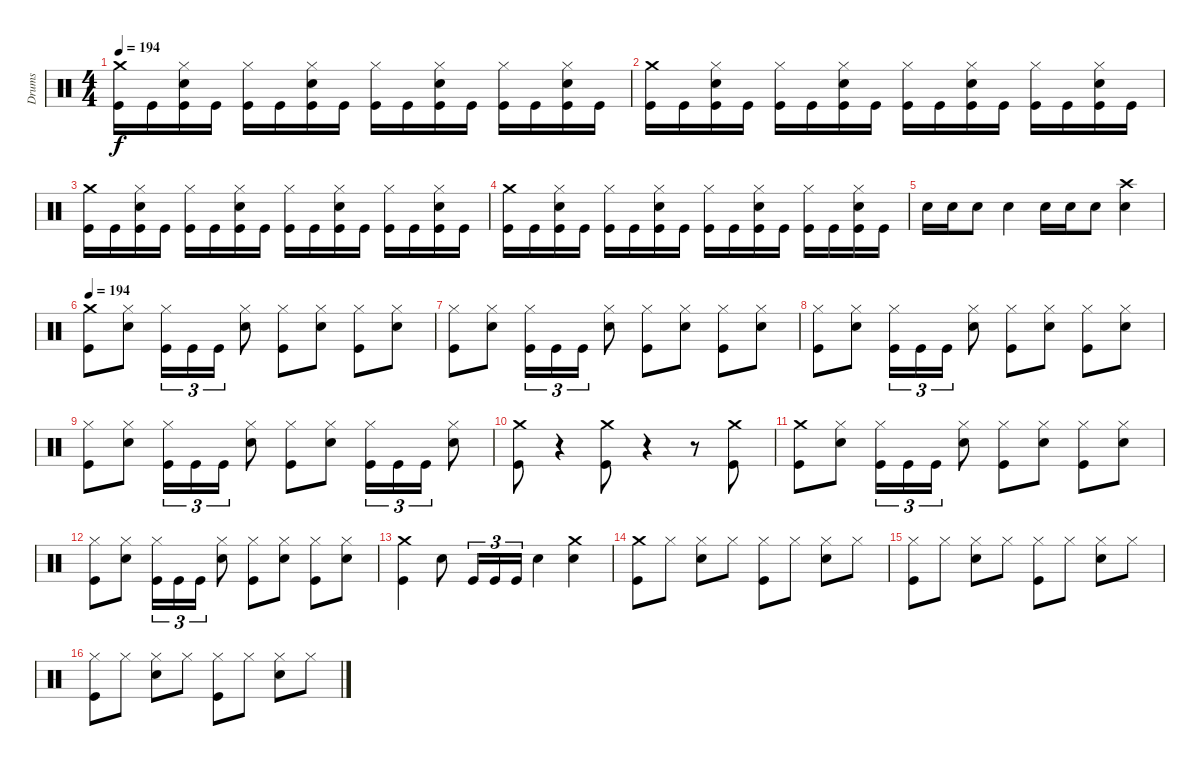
\track ("Drums" "Drums") {instrument percussion}
\staff {score}
\articulation defaults
\ts (4 4)
\tempo 194
\clef neutral
\ks c
("Crash medium (hit)" "Kick (hit)").16{dy f} "Kick (hit)".16 ("Hi-Hat (closed)" "Snare (hit) 2" "Kick (hit)").16 "Kick (hit)".16 ("Hi-Hat (closed)" "Kick (hit)").16 "Kick (hit)".16 ("Hi-Hat (closed)" "Snare (hit) 2" "Kick (hit)").16 "Kick (hit)".16 ("Hi-Hat (closed)" "Kick (hit)").16 "Kick (hit)".16 ("Hi-Hat (closed)" "Snare (hit) 2" "Kick (hit)").16 "Kick (hit)".16 ("Hi-Hat (closed)" "Kick (hit)").16 "Kick (hit)".16 ("Hi-Hat (closed)" "Snare (hit) 2" "Kick (hit)").16 "Kick (hit)".16 |
("Crash medium (hit)" "Kick (hit)").16 "Kick (hit)".16 ("Hi-Hat (closed)" "Snare (hit) 2" "Kick (hit)").16 "Kick (hit)".16 ("Hi-Hat (closed)" "Kick (hit)").16 "Kick (hit)".16 ("Hi-Hat (closed)" "Snare (hit) 2" "Kick (hit)").16 "Kick (hit)".16 ("Hi-Hat (closed)" "Kick (hit)").16 "Kick (hit)".16 ("Hi-Hat (closed)" "Snare (hit) 2" "Kick (hit)").16 "Kick (hit)".16 ("Hi-Hat (closed)" "Kick (hit)").16 "Kick (hit)".16 ("Hi-Hat (closed)" "Snare (hit) 2" "Kick (hit)").16 "Kick (hit)".16 |
("Crash medium (hit)" "Kick (hit)").16 "Kick (hit)".16 ("Hi-Hat (closed)" "Snare (hit) 2" "Kick (hit)").16 "Kick (hit)".16 ("Hi-Hat (closed)" "Kick (hit)").16 "Kick (hit)".16 ("Hi-Hat (closed)" "Snare (hit) 2" "Kick (hit)").16 "Kick (hit)".16 ("Hi-Hat (closed)" "Kick (hit)").16 "Kick (hit)".16 ("Hi-Hat (closed)" "Snare (hit) 2" "Kick (hit)").16 "Kick (hit)".16 ("Hi-Hat (closed)" "Kick (hit)").16 "Kick (hit)".16 ("Hi-Hat (closed)" "Snare (hit) 2" "Kick (hit)").16 "Kick (hit)".16 |
("Crash medium (hit)" "Kick (hit)").16 "Kick (hit)".16 ("Hi-Hat (closed)" "Snare (hit) 2" "Kick (hit)").16 "Kick (hit)".16 ("Hi-Hat (closed)" "Kick (hit)").16 "Kick (hit)".16 ("Hi-Hat (closed)" "Snare (hit) 2" "Kick (hit)").16 "Kick (hit)".16 ("Hi-Hat (closed)" "Kick (hit)").16 "Kick (hit)".16 ("Hi-Hat (closed)" "Snare (hit) 2" "Kick (hit)").16 "Kick (hit)".16 ("Hi-Hat (closed)" "Kick (hit)").16 "Kick (hit)".16 ("Hi-Hat (closed)" "Snare (hit) 2" "Kick (hit)").16 "Kick (hit)".16 |
"Snare (hit) 2".16 "Snare (hit) 2".16 "Snare (hit) 2".8 "Snare (hit) 2".4 "Snare (hit) 2".16 "Snare (hit) 2".16 "Snare (hit) 2".8 ("Crash high (hit)" "Snare (hit) 2").4 |
\tempo 194
("Crash medium (hit)" "Kick (hit)").8 ("Hi-Hat (closed)" "Snare (hit) 2").8 ("Hi-Hat (closed)" "Kick (hit)").16{tu (3 2)} "Kick (hit)".16{tu (3 2)} "Kick (hit)".16{tu (3 2)} ("Hi-Hat (closed)" "Snare (hit) 2").8 ("Hi-Hat (closed)" "Kick (hit)").8 ("Hi-Hat (closed)" "Snare (hit) 2").8 ("Hi-Hat (closed)" "Kick (hit)").8 ("Hi-Hat (closed)" "Snare (hit) 2").8 |
("Hi-Hat (closed)" "Kick (hit)").8 ("Hi-Hat (closed)" "Snare (hit) 2").8 ("Hi-Hat (closed)" "Kick (hit)").16{tu (3 2)} "Kick (hit)".16{tu (3 2)} "Kick (hit)".16{tu (3 2)} ("Hi-Hat (closed)" "Snare (hit) 2").8 ("Hi-Hat (closed)" "Kick (hit)").8 ("Hi-Hat (closed)" "Snare (hit) 2").8 ("Hi-Hat (closed)" "Kick (hit)").8 ("Hi-Hat (closed)" "Snare (hit) 2").8 |
("Hi-Hat (closed)" "Kick (hit)").8 ("Hi-Hat (closed)" "Snare (hit) 2").8 ("Hi-Hat (closed)" "Kick (hit)").16{tu (3 2)} "Kick (hit)".16{tu (3 2)} "Kick (hit)".16{tu (3 2)} ("Hi-Hat (closed)" "Snare (hit) 2").8 ("Hi-Hat (closed)" "Kick (hit)").8 ("Hi-Hat (closed)" "Snare (hit) 2").8 ("Hi-Hat (closed)" "Kick (hit)").8 ("Hi-Hat (closed)" "Snare (hit) 2").8 |
("Hi-Hat (closed)" "Kick (hit)").8 ("Hi-Hat (closed)" "Snare (hit) 2").8 ("Hi-Hat (closed)" "Kick (hit)").16{tu (3 2)} "Kick (hit)".16{tu (3 2)} "Kick (hit)".16{tu (3 2)} ("Hi-Hat (closed)" "Snare (hit) 2").8 ("Hi-Hat (closed)" "Kick (hit)").8 ("Hi-Hat (closed)" "Snare (hit) 2").8 ("Hi-Hat (closed)" "Kick (hit)").16{tu (3 2)} "Kick (hit)".16{tu (3 2)} "Kick (hit)".16{tu (3 2)} ("Hi-Hat (closed)" "Snare (hit) 2").8 |
("Crash medium (hit)" "Kick (hit)").8 r.4 ("Crash medium (hit)" "Kick (hit)").8 r.4 r.8 ("Crash medium (hit)" "Kick (hit)").8 |
("Crash medium (hit)" "Kick (hit)").8 ("Hi-Hat (closed)" "Snare (hit) 2").8 ("Hi-Hat (closed)" "Kick (hit)").16{tu (3 2)} "Kick (hit)".16{tu (3 2)} "Kick (hit)".16{tu (3 2)} ("Hi-Hat (closed)" "Snare (hit) 2").8 ("Hi-Hat (closed)" "Kick (hit)").8 ("Hi-Hat (closed)" "Snare (hit) 2").8 ("Hi-Hat (closed)" "Kick (hit)").8 ("Hi-Hat (closed)" "Snare (hit) 2").8 |
("Hi-Hat (closed)" "Kick (hit)").8 ("Hi-Hat (closed)" "Snare (hit) 2").8 ("Hi-Hat (closed)" "Kick (hit)").16{tu (3 2)} "Kick (hit)".16{tu (3 2)} "Kick (hit)".16{tu (3 2)} ("Hi-Hat (closed)" "Snare (hit) 2").8 ("Hi-Hat (closed)" "Kick (hit)").8 ("Hi-Hat (closed)" "Snare (hit) 2").8 ("Hi-Hat (closed)" "Kick (hit)").8 ("Hi-Hat (closed)" "Snare (hit) 2").8 |
("Crash medium (hit)" "Kick (hit)").4 "Snare (hit) 2".8 "Kick (hit)".16{tu (3 2)} "Kick (hit)".16{tu (3 2)} "Kick (hit)".16{tu (3 2)} "Snare (hit) 2".4 ("Crash medium (hit)" "Snare (hit) 2").4 |
("Crash medium (hit)" "Kick (hit)").8 "Hi-Hat (closed)".8 ("Hi-Hat (closed)" "Snare (hit) 2").8 "Hi-Hat (closed)".8 ("Hi-Hat (closed)" "Kick (hit)").8 "Hi-Hat (closed)".8 ("Hi-Hat (closed)" "Snare (hit) 2").8 "Hi-Hat (closed)".8 |
("Hi-Hat (closed)" "Kick (hit)").8 "Hi-Hat (closed)".8 ("Hi-Hat (closed)" "Snare (hit) 2").8 "Hi-Hat (closed)".8 ("Hi-Hat (closed)" "Kick (hit)").8 "Hi-Hat (closed)".8 ("Hi-Hat (closed)" "Snare (hit) 2").8 "Hi-Hat (closed)".8 |
("Hi-Hat (closed)" "Kick (hit)").8 "Hi-Hat (closed)".8 ("Hi-Hat (closed)" "Snare (hit) 2").8 "Hi-Hat (closed)".8 ("Hi-Hat (closed)" "Kick (hit)").8 "Hi-Hat (closed)".8 ("Hi-Hat (closed)" "Snare (hit) 2").8 "Hi-Hat (closed)".8
